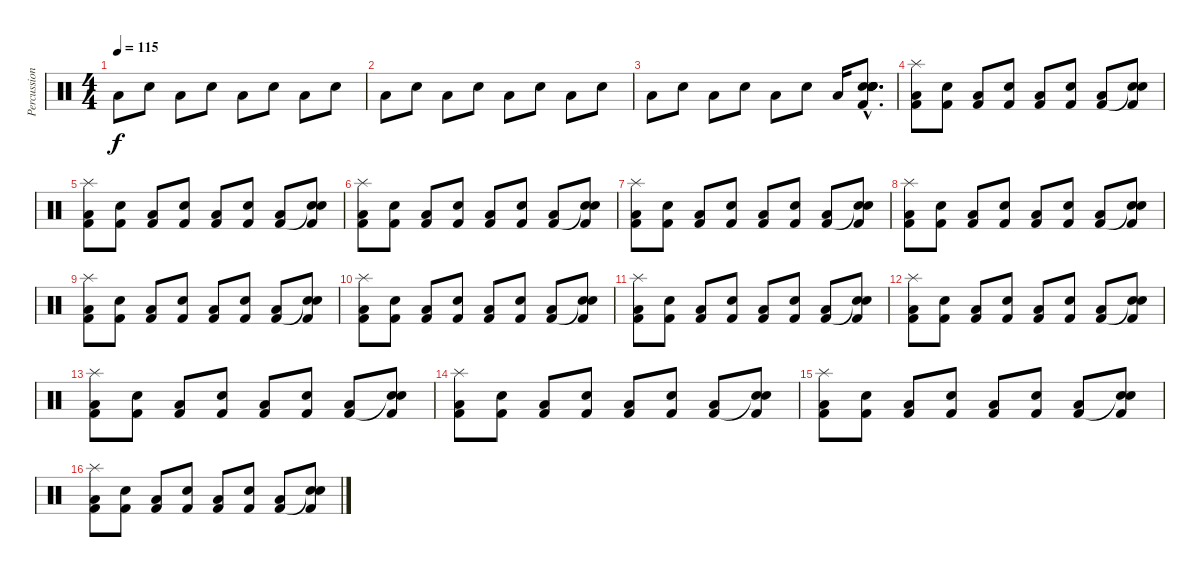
\track ("Percussions" "Percussion") {instrument percussion}
\staff {score}
\articulation defaults
\ts (4 4)
\tempo 115
\clef neutral
\ks c "Low Floor Tom (hit)".8{dy f} "Electric Snare (hit)".8 "Low Floor Tom (hit)".8 "Electric Snare (hit)".8 "Low Floor Tom (hit)".8 "Electric Snare (hit)".8 "Low Floor Tom (hit)".8 "Electric Snare (hit)".8
|
"Low Floor Tom (hit)".8 "Electric Snare (hit)".8 "Low Floor Tom (hit)".8 "Electric Snare (hit)".8 "Low Floor Tom (hit)".8 "Electric Snare (hit)".8 "Low Floor Tom (hit)".8 "Electric Snare (hit)".8 |
"Low Floor Tom (hit)".8 "Electric Snare (hit)".8 "Low Floor Tom (hit)".8 "Electric Snare (hit)".8 "Low Floor Tom (hit)".8 "Electric Snare (hit)".8 "Low Floor Tom (hit)".16 ("Electric Snare (hit)"{hac} "Snare (hit) 2"{hac} "Electric Snare (hit)"{hac} "Electric Snare (hit)"{hac} "Snare (hit) 2"{hac} "Kick (hit) 2"{hac}).8{d} |
("Splash (hit)" "Kick (hit) 2" "Low Floor Tom (hit)").8 ("Kick (hit) 2" "Electric Snare (hit)").8 ("Kick (hit) 2" "Low Floor Tom (hit)").8 ("Kick (hit) 2" "Electric Snare (hit)").8 ("Kick (hit) 2" "Low Floor Tom (hit)").8 ("Kick (hit) 2" "Electric Snare (hit)").8 ("Kick (hit) 2" "Low Floor Tom (hit)").8 ("Snare (hit)"{t} "Kick (hit) 2" "Electric Snare (hit)").8 |
("Splash (hit)" "Kick (hit) 2" "Low Floor Tom (hit)").8 ("Kick (hit) 2" "Electric Snare (hit)").8 ("Kick (hit) 2" "Low Floor Tom (hit)").8 ("Kick (hit) 2" "Electric Snare (hit)").8 ("Kick (hit) 2" "Low Floor Tom (hit)").8 ("Kick (hit) 2" "Electric Snare (hit)").8 ("Kick (hit) 2" "Low Floor Tom (hit)").8 ("Snare (hit)"{t} "Kick (hit) 2" "Electric Snare (hit)").8 |
("Splash (hit)" "Kick (hit) 2" "Low Floor Tom (hit)").8 ("Kick (hit) 2" "Electric Snare (hit)").8 ("Kick (hit) 2" "Low Floor Tom (hit)").8 ("Kick (hit) 2" "Electric Snare (hit)").8 ("Kick (hit) 2" "Low Floor Tom (hit)").8 ("Kick (hit) 2" "Electric Snare (hit)").8 ("Kick (hit) 2" "Low Floor Tom (hit)").8 ("Snare (hit)"{t} "Kick (hit) 2" "Electric Snare (hit)").8 |
("Splash (hit)" "Kick (hit) 2" "Low Floor Tom (hit)").8 ("Kick (hit) 2" "Electric Snare (hit)").8 ("Kick (hit) 2" "Low Floor Tom (hit)").8 ("Kick (hit) 2" "Electric Snare (hit)").8 ("Kick (hit) 2" "Low Floor Tom (hit)").8 ("Kick (hit) 2" "Electric Snare (hit)").8 ("Kick (hit) 2" "Low Floor Tom (hit)").8 ("Snare (hit)"{t} "Kick (hit) 2" "Electric Snare (hit)").8 |
("Splash (hit)" "Kick (hit) 2" "Low Floor Tom (hit)").8 ("Kick (hit) 2" "Electric Snare (hit)").8 ("Kick (hit) 2" "Low Floor Tom (hit)").8 ("Kick (hit) 2" "Electric Snare (hit)").8 ("Kick (hit) 2" "Low Floor Tom (hit)").8 ("Kick (hit) 2" "Electric Snare (hit)").8 ("Kick (hit) 2" "Low Floor Tom (hit)").8 ("Snare (hit)"{t} "Kick (hit) 2" "Electric Snare (hit)").8 |
("Splash (hit)" "Kick (hit) 2" "Low Floor Tom (hit)").8 ("Kick (hit) 2" "Electric Snare (hit)").8 ("Kick (hit) 2" "Low Floor Tom (hit)").8 ("Kick (hit) 2" "Electric Snare (hit)").8 ("Kick (hit) 2" "Low Floor Tom (hit)").8 ("Kick (hit) 2" "Electric Snare (hit)").8 ("Kick (hit) 2" "Low Floor Tom (hit)").8 ("Snare (hit)"{t} "Kick (hit) 2" "Electric Snare (hit)").8 |
("Splash (hit)" "Kick (hit) 2" "Low Floor Tom (hit)").8 ("Kick (hit) 2" "Electric Snare (hit)").8 ("Kick (hit) 2" "Low Floor Tom (hit)").8 ("Kick (hit) 2" "Electric Snare (hit)").8 ("Kick (hit) 2" "Low Floor Tom (hit)").8 ("Kick (hit) 2" "Electric Snare (hit)").8 ("Kick (hit) 2" "Low Floor Tom (hit)").8 ("Snare (hit)"{t} "Kick (hit) 2" "Electric Snare (hit)").8 |
("Splash (hit)" "Kick (hit) 2" "Low Floor Tom (hit)").8 ("Kick (hit) 2" "Electric Snare (hit)").8 ("Kick (hit) 2" "Low Floor Tom (hit)").8 ("Kick (hit) 2" "Electric Snare (hit)").8 ("Kick (hit) 2" "Low Floor Tom (hit)").8 ("Kick (hit) 2" "Electric Snare (hit)").8 ("Kick (hit) 2" "Low Floor Tom (hit)").8 ("Snare (hit)"{t} "Kick (hit) 2" "Electric Snare (hit)").8 |
("Splash (hit)" "Kick (hit) 2" "Low Floor Tom (hit)").8 ("Kick (hit) 2" "Electric Snare (hit)").8 ("Kick (hit) 2" "Low Floor Tom (hit)").8 ("Kick (hit) 2" "Electric Snare (hit)").8 ("Kick (hit) 2" "Low Floor Tom (hit)").8 ("Kick (hit) 2" "Electric Snare (hit)").8 ("Kick (hit) 2" "Low Floor Tom (hit)").8 ("Snare (hit)"{t} "Kick (hit) 2" "Electric Snare (hit)").8 |
("Splash (hit)" "Kick (hit) 2" "Low Floor Tom (hit)").8 ("Kick (hit) 2" "Electric Snare (hit)").8 ("Kick (hit) 2" "Low Floor Tom (hit)").8 ("Kick (hit) 2" "Electric Snare (hit)").8 ("Kick (hit) 2" "Low Floor Tom (hit)").8 ("Kick (hit) 2" "Electric Snare (hit)").8 ("Kick (hit) 2" "Low Floor Tom (hit)").8 ("Snare (hit)"{t} "Kick (hit) 2" "Electric Snare (hit)").8 |
("Splash (hit)" "Kick (hit) 2" "Low Floor Tom (hit)").8 ("Kick (hit) 2" "Electric Snare (hit)").8 ("Kick (hit) 2" "Low Floor Tom (hit)").8 ("Kick (hit) 2" "Electric Snare (hit)").8 ("Kick (hit) 2" "Low Floor Tom (hit)").8 ("Kick (hit) 2" "Electric Snare (hit)").8 ("Kick (hit) 2" "Low Floor Tom (hit)").8 ("Snare (hit)"{t} "Kick (hit) 2" "Electric Snare (hit)").8 |
("Splash (hit)" "Kick (hit) 2" "Low Floor Tom (hit)").8 ("Kick (hit) 2" "Electric Snare (hit)").8 ("Kick (hit) 2" "Low Floor Tom (hit)").8 ("Kick (hit) 2" "Electric Snare (hit)").8 ("Kick (hit) 2" "Low Floor Tom (hit)").8 ("Kick (hit) 2" "Electric Snare (hit)").8 ("Kick (hit) 2" "Low Floor Tom (hit)").8 ("Snare (hit)"{t} "Kick (hit) 2" "Electric Snare (hit)").8 |
("Splash (hit)" "Kick (hit) 2" "Low Floor Tom (hit)").8 ("Kick (hit) 2" "Electric Snare (hit)").8 ("Kick (hit) 2" "Low Floor Tom (hit)").8 ("Kick (hit) 2" "Electric Snare (hit)").8 ("Kick (hit) 2" "Low Floor Tom (hit)").8 ("Kick (hit) 2" "Electric Snare (hit)").8 ("Kick (hit) 2" "Low Floor Tom (hit)").8 ("Snare (hit)"{t} "Kick (hit) 2" "Electric Snare (hit)").8
